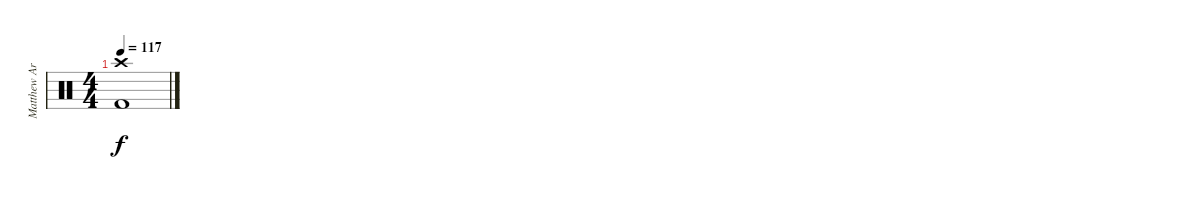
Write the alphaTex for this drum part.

\track ("Matthew Archer" "Matthew Ar") {instrument percussion}
\staff {score}
\articulation defaults
\ts (4 4)
\tempo 117
\clef neutral
\ks c
("Crash high (hit)" "Kick (hit) 2").1{dy f}
